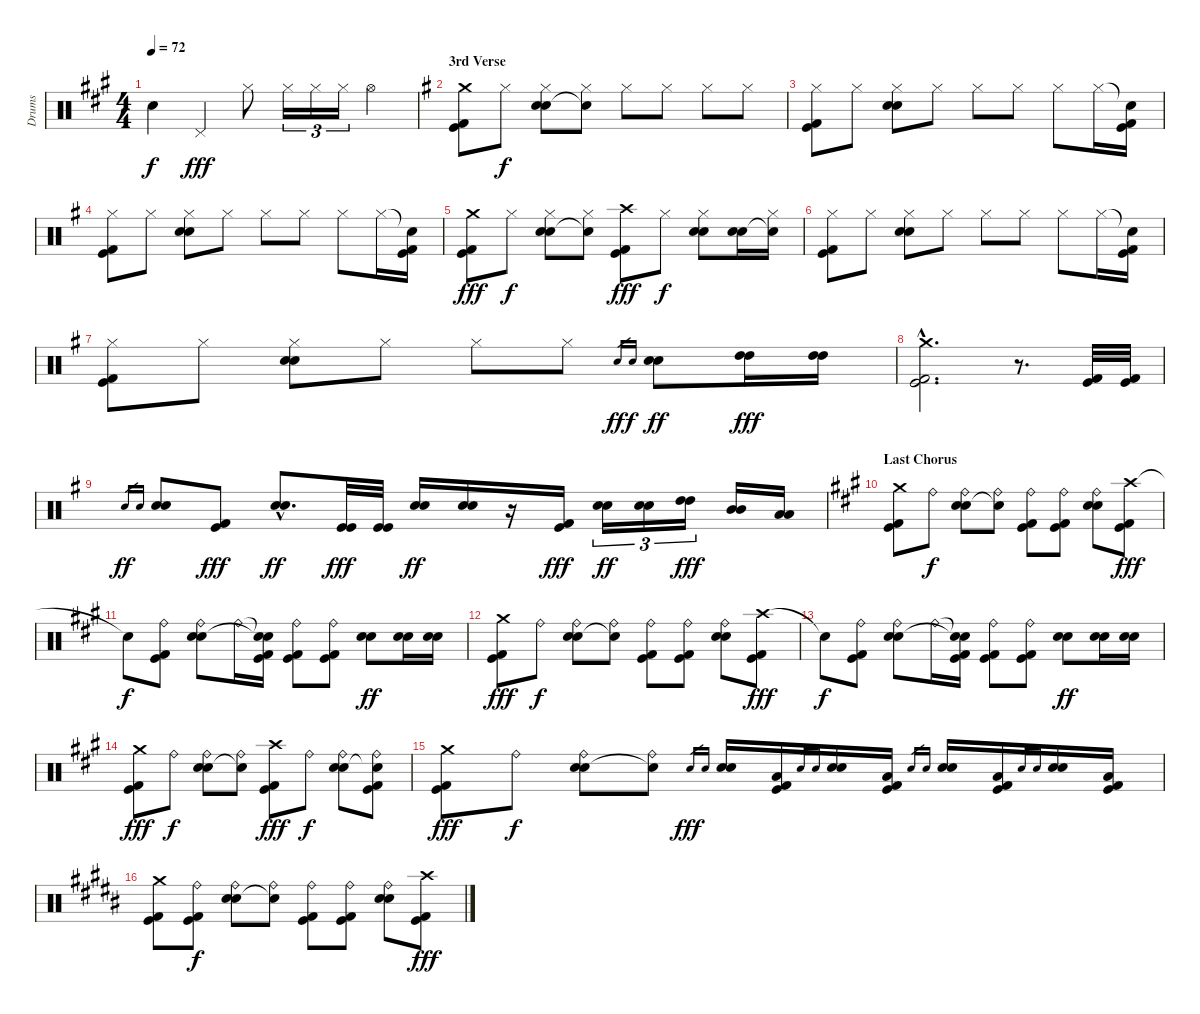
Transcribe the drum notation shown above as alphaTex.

\track ("Drums" "Drums") {instrument percussion}
\staff {score}
\articulation defaults
\ts (4 4)
\tempo 72
\clef neutral
\ks a "Snare (hit)"{t}.4{dy f} "Pedal Hi-Hat (hit)".4{dy fff} "Hi-Hat (closed)".8 "Hi-Hat (closed)".16{tu (3 2)} "Hi-Hat (closed)".16{tu (3 2)} "Hi-Hat (closed)".16{tu (3 2)} "Hi-Hat (open)".4
|
\section ("" "3rd Verse")
\ks g
("Crash medium (hit)" "Kick (hit)" "Kick (hit) 2").8 "Hi-Hat (closed)".8{dy f} ("Hi-Hat (closed)" "Electric Snare (hit)" "Snare (hit) 2").8 ("Hi-Hat (closed)" "Snare (hit)"{t}).8 "Hi-Hat (closed)".8 "Hi-Hat (closed)".8 "Hi-Hat (closed)".8 "Hi-Hat (closed)".8 |
("Hi-Hat (closed)" "Kick (hit)" "Kick (hit) 2").8 "Hi-Hat (closed)".8 ("Hi-Hat (closed)" "Electric Snare (hit)" "Snare (hit) 2").8 "Hi-Hat (closed)".8 "Hi-Hat (closed)".8 "Hi-Hat (closed)".8 "Hi-Hat (closed)".8 "Hi-Hat (closed)".16 ("Snare (hit)"{t} "Kick (hit)" "Kick (hit) 2").16 |
("Hi-Hat (closed)" "Kick (hit)" "Kick (hit) 2").8 "Hi-Hat (closed)".8 ("Hi-Hat (closed)" "Electric Snare (hit)" "Snare (hit) 2").8 "Hi-Hat (closed)".8 "Hi-Hat (closed)".8 "Hi-Hat (closed)".8 "Hi-Hat (closed)".8 "Hi-Hat (closed)".16 ("Snare (hit)"{t} "Kick (hit)" "Kick (hit) 2").16 |
("Crash medium (hit)" "Kick (hit)" "Kick (hit) 2").8{dy fff} "Hi-Hat (closed)".8{dy f} ("Hi-Hat (closed)" "Electric Snare (hit)" "Snare (hit) 2").8 ("Hi-Hat (closed)" "Snare (hit)"{t}).8 ("Crash high (hit)" "Kick (hit)" "Kick (hit) 2").8{dy fff} "Hi-Hat (closed)".8{dy f} ("Hi-Hat (closed)" "Electric Snare (hit)" "Snare (hit) 2").8 ("Electric Snare (hit)" "Snare (hit) 2").16 ("Hi-Hat (closed)" "Snare (hit)"{t}).16 |
("Hi-Hat (closed)" "Kick (hit)" "Kick (hit) 2").8 "Hi-Hat (closed)".8 ("Hi-Hat (closed)" "Electric Snare (hit)" "Snare (hit) 2").8 "Hi-Hat (closed)".8 "Hi-Hat (closed)".8 "Hi-Hat (closed)".8 "Hi-Hat (closed)".8 "Hi-Hat (closed)".16 ("Snare (hit)"{t} "Kick (hit)" "Kick (hit) 2").16 |
("Hi-Hat (closed)" "Kick (hit)" "Kick (hit) 2").8 "Hi-Hat (closed)".8 ("Hi-Hat (closed)" "Electric Snare (hit)" "Snare (hit) 2").8 "Hi-Hat (closed)".8 "Hi-Hat (closed)".8 "Hi-Hat (closed)".8 "Electric Snare (hit)".16{gr dy ff} "Snare (hit) 2".16{gr dy f} ("Electric Snare (hit)" "Snare (hit) 2").8{dy ff} ("High Tom (hit)" "High Tom (hit)").16{dy fff} ("High Tom (hit)" "High Tom (hit)").16 |
("Crash medium (hit)"{hac} "Kick (hit)"{hac} "Kick (hit) 2"{hac}).2{d} r.8{d} ("Kick (hit)" "Kick (hit) 2").32 ("Kick (hit)" "Kick (hit) 2").32 |
"Electric Snare (hit)".16{gr dy ff} "Snare (hit) 2".16{gr} ("Electric Snare (hit)" "Snare (hit) 2").8 ("Kick (hit)" "Kick (hit) 2").8{dy fff} ("Electric Snare (hit)"{hac} "Snare (hit) 2"{hac}).8{d dy ff} ("Kick (hit)" "Kick (hit)").32{dy fff} ("Kick (hit)" "Kick (hit)").32 ("Electric Snare (hit)" "Snare (hit) 2").16{dy ff} ("Electric Snare (hit)" "Snare (hit) 2").16 r.16 ("Kick (hit)" "Kick (hit) 2").16{dy fff} ("Electric Snare (hit)" "Snare (hit) 2").16{tu (3 2) dy ff} ("Electric Snare (hit)" "Snare (hit) 2").16{tu (3 2)} ("High Tom (hit)" "High Tom (hit)").16{tu (3 2) dy fff} ("Mid Tom (hit)" "Mid Tom (hit)").16 ("Low Tom (hit)" "Low Tom (hit)").16 |
\section ("" "Last Chorus")
\ks a
("Crash medium (hit)" "Kick (hit)" "Kick (hit) 2").8 "Ride (bell)".8{dy f} ("Ride (bell)" "Electric Snare (hit)" "Snare (hit) 2").8 ("Ride (bell)" "Snare (hit)"{t}).8 ("Ride (bell)" "Kick (hit)" "Kick (hit) 2").8 ("Ride (bell)" "Kick (hit)" "Kick (hit) 2").8 ("Ride (bell)" "Electric Snare (hit)" "Snare (hit) 2").8 ("Crash high (hit)" "Kick (hit)" "Kick (hit) 2").8{dy fff} |
"Snare (hit)"{t}.8{dy f} ("Ride (bell)" "Kick (hit)" "Kick (hit) 2").8 ("Ride (bell)" "Electric Snare (hit)" "Snare (hit) 2").8 "Ride (bell)".16 ("Snare (hit)"{t} "Snare (hit)"{t} "Kick (hit)" "Kick (hit) 2").16 ("Ride (bell)" "Kick (hit)" "Kick (hit) 2").8 ("Ride (bell)" "Kick (hit)" "Kick (hit) 2").8 ("Electric Snare (hit)" "Snare (hit) 2").8{dy ff} ("Electric Snare (hit)" "Snare (hit) 2").16 ("Electric Snare (hit)" "Snare (hit) 2").16 |
("Crash medium (hit)" "Kick (hit)" "Kick (hit) 2").8{dy fff} "Ride (bell)".8{dy f} ("Ride (bell)" "Electric Snare (hit)" "Snare (hit) 2").8 ("Ride (bell)" "Snare (hit)"{t}).8 ("Ride (bell)" "Kick (hit)" "Kick (hit) 2").8 ("Ride (bell)" "Kick (hit)" "Kick (hit) 2").8 ("Ride (bell)" "Electric Snare (hit)" "Snare (hit) 2").8 ("Crash high (hit)" "Kick (hit)" "Kick (hit) 2").8{dy fff} |
"Snare (hit)"{t}.8{dy f} ("Ride (bell)" "Kick (hit)" "Kick (hit) 2").8 ("Ride (bell)" "Electric Snare (hit)" "Snare (hit) 2").8 "Ride (bell)".16 ("Snare (hit)"{t} "Snare (hit)"{t} "Kick (hit)" "Kick (hit) 2").16 ("Ride (bell)" "Kick (hit)" "Kick (hit) 2").8 ("Ride (bell)" "Kick (hit)" "Kick (hit) 2").8 ("Electric Snare (hit)" "Snare (hit) 2").8{dy ff} ("Electric Snare (hit)" "Snare (hit) 2").16 ("Electric Snare (hit)" "Snare (hit) 2").16 |
("Crash medium (hit)" "Kick (hit)" "Kick (hit) 2").8{dy fff} "Ride (bell)".8{dy f} ("Ride (bell)" "Electric Snare (hit)" "Snare (hit) 2").8 ("Ride (bell)" "Snare (hit)"{t}).8 ("Crash high (hit)" "Kick (hit)" "Kick (hit) 2").8{dy fff} "Ride (bell)".8{dy f} ("Ride (bell)" "Electric Snare (hit)" "Snare (hit) 2").8 ("Ride (bell)" "Snare (hit)"{t} "Kick (hit)" "Kick (hit) 2").8 |
("Crash medium (hit)" "Kick (hit)" "Kick (hit) 2").8{dy fff} "Ride (bell)".8{dy f} ("Ride (bell)" "Electric Snare (hit)" "Snare (hit) 2").8 ("Ride (bell)" "Snare (hit)"{t}).8 "Electric Snare (hit)".16{gr dy fff} "Snare (hit) 2".16{gr} ("Electric Snare (hit)" "Snare (hit) 2").16 ("Low Floor Tom (hit)" "Kick (hit)" "Kick (hit) 2").16 "Electric Snare (hit)".16{gr} "Snare (hit) 2".16{gr} ("Electric Snare (hit)" "Snare (hit) 2").16 ("Low Floor Tom (hit)" "Kick (hit)" "Kick (hit) 2").16 "Electric Snare (hit)".16{gr} "Snare (hit) 2".16{gr} ("Electric Snare (hit)" "Snare (hit) 2").16 ("Low Floor Tom (hit)" "Kick (hit)" "Kick (hit) 2").16 "Electric Snare (hit)".16{gr} "Snare (hit) 2".16{gr} ("Electric Snare (hit)" "Snare (hit) 2").16 ("Low Floor Tom (hit)" "Kick (hit)" "Kick (hit) 2").16 |
\ks b
("Crash medium (hit)" "Kick (hit)" "Kick (hit) 2").8 ("Ride (bell)" "Kick (hit)" "Kick (hit) 2").8{dy f} ("Ride (bell)" "Electric Snare (hit)" "Snare (hit) 2").8 ("Ride (bell)" "Snare (hit)"{t}).8 ("Ride (bell)" "Kick (hit)" "Kick (hit) 2").8 ("Ride (bell)" "Kick (hit)" "Kick (hit) 2").8 ("Ride (bell)" "Electric Snare (hit)" "Snare (hit) 2").8 ("Crash high (hit)" "Kick (hit)" "Kick (hit) 2").8{dy fff}
